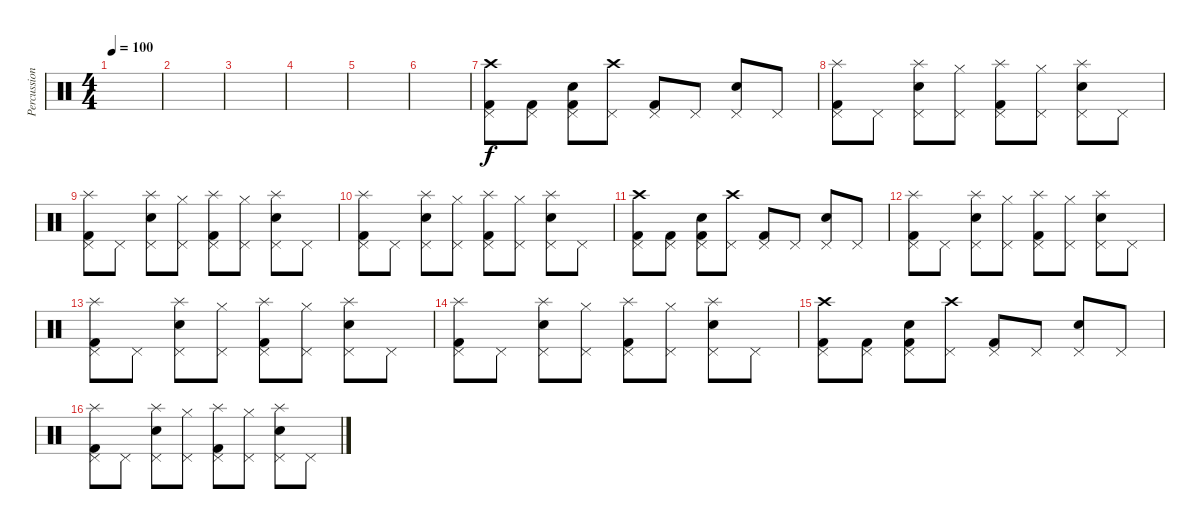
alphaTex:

\track ("Percussion" "Percussion") {instrument percussion}
\staff {score}
\articulation defaults
\ts (4 4)
\tempo 100
\clef neutral
\ks c
|
|
|
|
|
|
("Crash high (hit)" "Kick (hit) 2" "Pedal Hi-Hat (hit)").8 ("Kick (hit) 2" "Pedal Hi-Hat (hit)").8 ("Electric Snare (hit)" "Kick (hit) 2" "Pedal Hi-Hat (hit)").8 ("Crash high (hit)" "Pedal Hi-Hat (hit)").8 ("Kick (hit) 2" "Pedal Hi-Hat (hit)").8 "Pedal Hi-Hat (hit)".8 ("Electric Snare (hit)" "Pedal Hi-Hat (hit)").8 "Pedal Hi-Hat (hit)".8 |
("Kick (hit) 2" "Pedal Hi-Hat (hit)" "Splash (hit)").8 "Pedal Hi-Hat (hit)".8 ("Electric Snare (hit)" "Pedal Hi-Hat (hit)" "Splash (hit)").8 ("Hi-Hat (closed)" "Pedal Hi-Hat (hit)").8 ("Kick (hit) 2" "Pedal Hi-Hat (hit)" "Splash (hit)").8 ("Hi-Hat (closed)" "Pedal Hi-Hat (hit)").8 ("Electric Snare (hit)" "Pedal Hi-Hat (hit)" "Splash (hit)").8 "Pedal Hi-Hat (hit)".8 |
("Kick (hit) 2" "Pedal Hi-Hat (hit)" "Splash (hit)").8 "Pedal Hi-Hat (hit)".8 ("Electric Snare (hit)" "Pedal Hi-Hat (hit)" "Splash (hit)").8 ("Hi-Hat (closed)" "Pedal Hi-Hat (hit)").8 ("Kick (hit) 2" "Pedal Hi-Hat (hit)" "Splash (hit)").8 ("Hi-Hat (closed)" "Pedal Hi-Hat (hit)").8 ("Electric Snare (hit)" "Pedal Hi-Hat (hit)" "Splash (hit)").8 "Pedal Hi-Hat (hit)".8 |
("Kick (hit) 2" "Pedal Hi-Hat (hit)" "Splash (hit)").8 "Pedal Hi-Hat (hit)".8 ("Electric Snare (hit)" "Pedal Hi-Hat (hit)" "Splash (hit)").8 ("Hi-Hat (closed)" "Pedal Hi-Hat (hit)").8 ("Kick (hit) 2" "Pedal Hi-Hat (hit)" "Splash (hit)").8 ("Hi-Hat (closed)" "Pedal Hi-Hat (hit)").8 ("Electric Snare (hit)" "Pedal Hi-Hat (hit)" "Splash (hit)").8 "Pedal Hi-Hat (hit)".8 |
("Crash high (hit)" "Kick (hit) 2" "Pedal Hi-Hat (hit)").8 ("Kick (hit) 2" "Pedal Hi-Hat (hit)").8 ("Electric Snare (hit)" "Kick (hit) 2" "Pedal Hi-Hat (hit)").8 ("Crash high (hit)" "Pedal Hi-Hat (hit)").8 ("Kick (hit) 2" "Pedal Hi-Hat (hit)").8 "Pedal Hi-Hat (hit)".8 ("Electric Snare (hit)" "Pedal Hi-Hat (hit)").8 "Pedal Hi-Hat (hit)".8 |
("Kick (hit) 2" "Pedal Hi-Hat (hit)" "Splash (hit)").8 "Pedal Hi-Hat (hit)".8 ("Electric Snare (hit)" "Pedal Hi-Hat (hit)" "Splash (hit)").8 ("Hi-Hat (closed)" "Pedal Hi-Hat (hit)").8 ("Kick (hit) 2" "Pedal Hi-Hat (hit)" "Splash (hit)").8 ("Hi-Hat (closed)" "Pedal Hi-Hat (hit)").8 ("Electric Snare (hit)" "Pedal Hi-Hat (hit)" "Splash (hit)").8 "Pedal Hi-Hat (hit)".8 |
("Kick (hit) 2" "Pedal Hi-Hat (hit)" "Splash (hit)").8 "Pedal Hi-Hat (hit)".8 ("Electric Snare (hit)" "Pedal Hi-Hat (hit)" "Splash (hit)").8 ("Hi-Hat (closed)" "Pedal Hi-Hat (hit)").8 ("Kick (hit) 2" "Pedal Hi-Hat (hit)" "Splash (hit)").8 ("Hi-Hat (closed)" "Pedal Hi-Hat (hit)").8 ("Electric Snare (hit)" "Pedal Hi-Hat (hit)" "Splash (hit)").8 "Pedal Hi-Hat (hit)".8 |
("Kick (hit) 2" "Pedal Hi-Hat (hit)" "Splash (hit)").8 "Pedal Hi-Hat (hit)".8 ("Electric Snare (hit)" "Pedal Hi-Hat (hit)" "Splash (hit)").8 ("Hi-Hat (closed)" "Pedal Hi-Hat (hit)").8 ("Kick (hit) 2" "Pedal Hi-Hat (hit)" "Splash (hit)").8 ("Hi-Hat (closed)" "Pedal Hi-Hat (hit)").8 ("Electric Snare (hit)" "Pedal Hi-Hat (hit)" "Splash (hit)").8 "Pedal Hi-Hat (hit)".8 |
("Crash high (hit)" "Kick (hit) 2" "Pedal Hi-Hat (hit)").8 ("Kick (hit) 2" "Pedal Hi-Hat (hit)").8 ("Electric Snare (hit)" "Kick (hit) 2" "Pedal Hi-Hat (hit)").8 ("Crash high (hit)" "Pedal Hi-Hat (hit)").8 ("Kick (hit) 2" "Pedal Hi-Hat (hit)").8 "Pedal Hi-Hat (hit)".8 ("Electric Snare (hit)" "Pedal Hi-Hat (hit)").8 "Pedal Hi-Hat (hit)".8 |
("Kick (hit) 2" "Pedal Hi-Hat (hit)" "Splash (hit)").8 "Pedal Hi-Hat (hit)".8 ("Electric Snare (hit)" "Pedal Hi-Hat (hit)" "Splash (hit)").8 ("Hi-Hat (closed)" "Pedal Hi-Hat (hit)").8 ("Kick (hit) 2" "Pedal Hi-Hat (hit)" "Splash (hit)").8 ("Hi-Hat (closed)" "Pedal Hi-Hat (hit)").8 ("Electric Snare (hit)" "Pedal Hi-Hat (hit)" "Splash (hit)").8 "Pedal Hi-Hat (hit)".8
